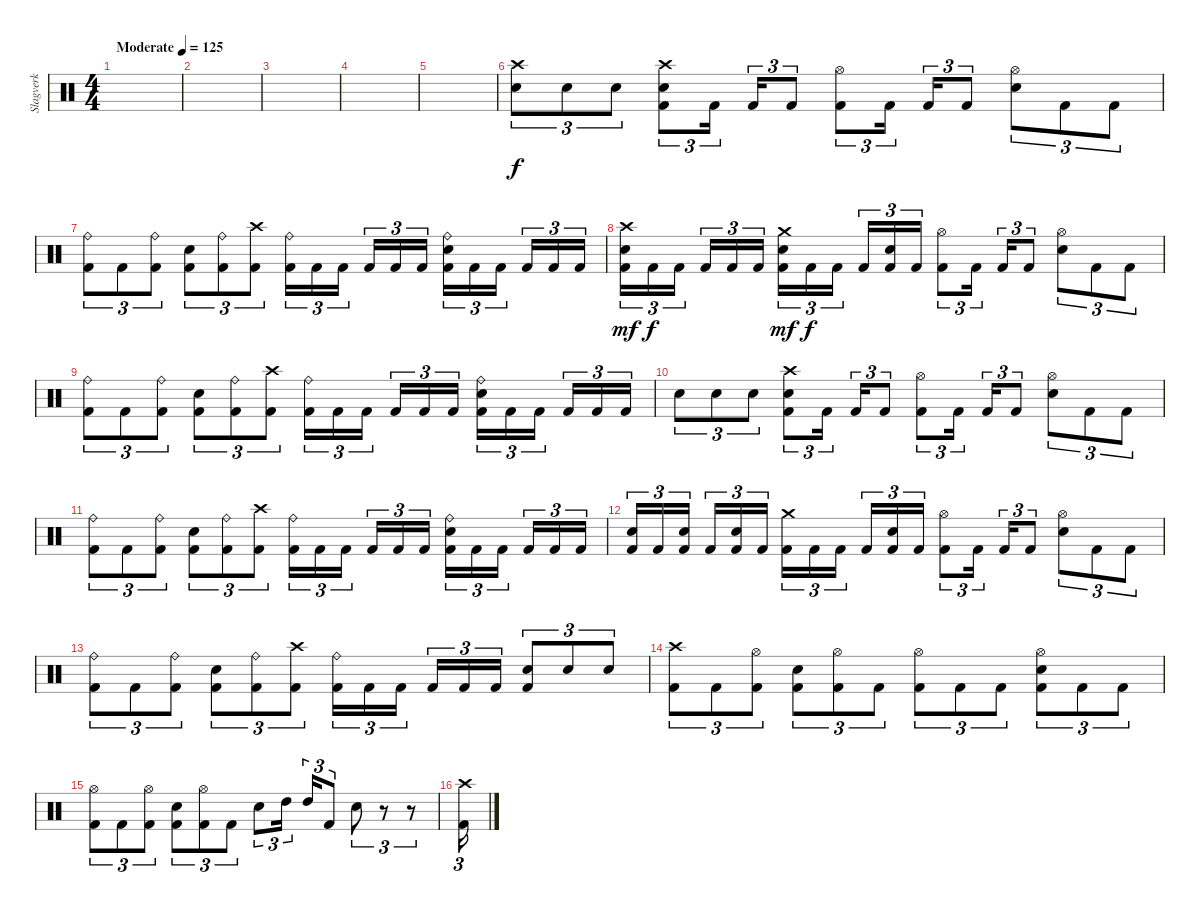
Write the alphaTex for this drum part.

\track ("Slagverk" "Slagverk") {instrument percussion}
\staff {score}
\articulation defaults
\ts (4 4)
\tempo (125 "Moderate")
\clef neutral
\ks c
|
|
|
|
|
("Crash high (hit)" "Electric Snare (hit)").8{tu (3 2)} "Electric Snare (hit)".8{tu (3 2) dy f} "Electric Snare (hit)".8{tu (3 2)} ("Crash high (hit)" "Electric Snare (hit)" "Kick (hit) 2").8{tu (3 2)} "Kick (hit) 2".16{tu (3 2) beam splitsecondary} "Kick (hit) 2".16{tu (3 2)} "Kick (hit) 2".8{tu (3 2)} ("Hi-Hat (open)" "Kick (hit) 2").8{tu (3 2)} "Kick (hit) 2".16{tu (3 2) beam splitsecondary} "Kick (hit) 2".16{tu (3 2)} "Kick (hit) 2".8{tu (3 2)} ("Hi-Hat (open)" "Electric Snare (hit)").8{tu (3 2)} "Kick (hit) 2".8{tu (3 2)} "Kick (hit) 2".8{tu (3 2)} |
("Ride (bell)" "Kick (hit) 2").8{tu (3 2)} "Kick (hit) 2".8{tu (3 2)} ("Ride (bell)" "Kick (hit) 2").8{tu (3 2)} ("Electric Snare (hit)" "Kick (hit) 2").8{tu (3 2)} ("Ride (bell)" "Kick (hit) 2").8{tu (3 2)} ("Crash high (hit)" "Kick (hit) 2").8{tu (3 2)} ("Ride (bell)" "Kick (hit) 2").16{tu (3 2)} "Kick (hit) 2".16{tu (3 2)} "Kick (hit) 2".16{tu (3 2) beam splitsecondary} "Kick (hit) 2".16{tu (3 2)} "Kick (hit) 2".16{tu (3 2)} "Kick (hit) 2".16{tu (3 2)} ("Ride (bell)" "Electric Snare (hit)" "Kick (hit) 2").16{tu (3 2)} "Kick (hit) 2".16{tu (3 2)} "Kick (hit) 2".16{tu (3 2) beam splitsecondary} "Kick (hit) 2".16{tu (3 2)} "Kick (hit) 2".16{tu (3 2)} "Kick (hit) 2".16{tu (3 2)} |
("Crash high (hit)" "Electric Snare (hit)" "Kick (hit) 2").16{tu (3 2) dy mf} "Kick (hit) 2".16{tu (3 2) dy f} "Kick (hit) 2".16{tu (3 2) beam splitsecondary} "Kick (hit) 2".16{tu (3 2)} "Kick (hit) 2".16{tu (3 2)} "Kick (hit) 2".16{tu (3 2)} ("Crash medium (hit)" "Electric Snare (hit)" "Kick (hit) 2").16{tu (3 2) dy mf} "Kick (hit) 2".16{tu (3 2) dy f} "Kick (hit) 2".16{tu (3 2) beam splitsecondary} "Kick (hit) 2".16{tu (3 2)} ("Electric Snare (hit)" "Kick (hit) 2").16{tu (3 2)} "Kick (hit) 2".16{tu (3 2)} ("Hi-Hat (open)" "Kick (hit) 2").8{tu (3 2)} "Kick (hit) 2".16{tu (3 2) beam splitsecondary} "Kick (hit) 2".16{tu (3 2)} "Kick (hit) 2".8{tu (3 2)} ("Hi-Hat (open)" "Electric Snare (hit)").8{tu (3 2)} "Kick (hit) 2".8{tu (3 2)} "Kick (hit) 2".8{tu (3 2)} |
("Ride (bell)" "Kick (hit) 2").8{tu (3 2)} "Kick (hit) 2".8{tu (3 2)} ("Ride (bell)" "Kick (hit) 2").8{tu (3 2)} ("Electric Snare (hit)" "Kick (hit) 2").8{tu (3 2)} ("Ride (bell)" "Kick (hit) 2").8{tu (3 2)} ("Crash high (hit)" "Kick (hit) 2").8{tu (3 2)} ("Ride (bell)" "Kick (hit) 2").16{tu (3 2)} "Kick (hit) 2".16{tu (3 2)} "Kick (hit) 2".16{tu (3 2) beam splitsecondary} "Kick (hit) 2".16{tu (3 2)} "Kick (hit) 2".16{tu (3 2)} "Kick (hit) 2".16{tu (3 2)} ("Ride (bell)" "Electric Snare (hit)" "Kick (hit) 2").16{tu (3 2)} "Kick (hit) 2".16{tu (3 2)} "Kick (hit) 2".16{tu (3 2) beam splitsecondary} "Kick (hit) 2".16{tu (3 2)} "Kick (hit) 2".16{tu (3 2)} "Kick (hit) 2".16{tu (3 2)} |
"Electric Snare (hit)".8{tu (3 2)} "Electric Snare (hit)".8{tu (3 2)} "Electric Snare (hit)".8{tu (3 2)} ("Crash high (hit)" "Electric Snare (hit)" "Kick (hit) 2").8{tu (3 2)} "Kick (hit) 2".16{tu (3 2) beam splitsecondary} "Kick (hit) 2".16{tu (3 2)} "Kick (hit) 2".8{tu (3 2)} ("Hi-Hat (open)" "Kick (hit) 2").8{tu (3 2)} "Kick (hit) 2".16{tu (3 2) beam splitsecondary} "Kick (hit) 2".16{tu (3 2)} "Kick (hit) 2".8{tu (3 2)} ("Hi-Hat (open)" "Electric Snare (hit)").8{tu (3 2)} "Kick (hit) 2".8{tu (3 2)} "Kick (hit) 2".8{tu (3 2)} |
("Ride (bell)" "Kick (hit) 2").8{tu (3 2)} "Kick (hit) 2".8{tu (3 2)} ("Ride (bell)" "Kick (hit) 2").8{tu (3 2)} ("Electric Snare (hit)" "Kick (hit) 2").8{tu (3 2)} ("Ride (bell)" "Kick (hit) 2").8{tu (3 2)} ("Crash high (hit)" "Kick (hit) 2").8{tu (3 2)} ("Ride (bell)" "Kick (hit) 2").16{tu (3 2)} "Kick (hit) 2".16{tu (3 2)} "Kick (hit) 2".16{tu (3 2) beam splitsecondary} "Kick (hit) 2".16{tu (3 2)} "Kick (hit) 2".16{tu (3 2)} "Kick (hit) 2".16{tu (3 2)} ("Ride (bell)" "Electric Snare (hit)" "Kick (hit) 2").16{tu (3 2)} "Kick (hit) 2".16{tu (3 2)} "Kick (hit) 2".16{tu (3 2) beam splitsecondary} "Kick (hit) 2".16{tu (3 2)} "Kick (hit) 2".16{tu (3 2)} "Kick (hit) 2".16{tu (3 2)} |
("Electric Snare (hit)" "Kick (hit) 2").16{tu (3 2)} "Kick (hit) 2".16{tu (3 2)} ("Electric Snare (hit)" "Kick (hit) 2").16{tu (3 2) beam splitsecondary} "Kick (hit) 2".16{tu (3 2)} ("Electric Snare (hit)" "Kick (hit) 2").16{tu (3 2)} "Kick (hit) 2".16{tu (3 2)} ("Crash medium (hit)" "Kick (hit) 2").16{tu (3 2)} "Kick (hit) 2".16{tu (3 2)} "Kick (hit) 2".16{tu (3 2) beam splitsecondary} "Kick (hit) 2".16{tu (3 2)} ("Electric Snare (hit)" "Kick (hit) 2").16{tu (3 2)} "Kick (hit) 2".16{tu (3 2)} ("Hi-Hat (open)" "Kick (hit) 2").8{tu (3 2)} "Kick (hit) 2".16{tu (3 2) beam splitsecondary} "Kick (hit) 2".16{tu (3 2)} "Kick (hit) 2".8{tu (3 2)} ("Hi-Hat (open)" "Electric Snare (hit)").8{tu (3 2)} "Kick (hit) 2".8{tu (3 2)} "Kick (hit) 2".8{tu (3 2)} |
("Ride (bell)" "Kick (hit) 2").8{tu (3 2)} "Kick (hit) 2".8{tu (3 2)} ("Ride (bell)" "Kick (hit) 2").8{tu (3 2)} ("Electric Snare (hit)" "Kick (hit) 2").8{tu (3 2)} ("Ride (bell)" "Kick (hit) 2").8{tu (3 2)} ("Crash high (hit)" "Kick (hit) 2").8{tu (3 2)} ("Ride (bell)" "Kick (hit) 2").16{tu (3 2)} "Kick (hit) 2".16{tu (3 2)} "Kick (hit) 2".16{tu (3 2) beam splitsecondary} "Kick (hit) 2".16{tu (3 2)} "Kick (hit) 2".16{tu (3 2)} "Kick (hit) 2".16{tu (3 2)} ("Electric Snare (hit)" "Kick (hit) 2").8{tu (3 2)} "Electric Snare (hit)".8{tu (3 2)} "Electric Snare (hit)".8{tu (3 2)} |
("Crash high (hit)" "Kick (hit) 2").8{tu (3 2)} "Kick (hit) 2".8{tu (3 2)} ("Hi-Hat (open)" "Kick (hit) 2").8{tu (3 2)} ("Electric Snare (hit)" "Kick (hit) 2").8{tu (3 2)} ("Hi-Hat (open)" "Kick (hit) 2").8{tu (3 2)} "Kick (hit) 2".8{tu (3 2)} ("Hi-Hat (open)" "Kick (hit) 2").8{tu (3 2)} "Kick (hit) 2".8{tu (3 2)} "Kick (hit) 2".8{tu (3 2)} ("Hi-Hat (open)" "Electric Snare (hit)" "Kick (hit) 2").8{tu (3 2)} "Kick (hit) 2".8{tu (3 2)} "Kick (hit) 2".8{tu (3 2)} |
("Hi-Hat (open)" "Kick (hit) 2").8{tu (3 2)} "Kick (hit) 2".8{tu (3 2)} ("Hi-Hat (open)" "Kick (hit) 2").8{tu (3 2)} ("Electric Snare (hit)" "Kick (hit) 2").8{tu (3 2)} ("Hi-Hat (open)" "Kick (hit) 2").8{tu (3 2)} "Kick (hit) 2".8{tu (3 2)} "Electric Snare (hit)".8{tu (3 2)} "High Tom (hit)".16{tu (3 2) beam splitsecondary} "High Tom (hit)".16{tu (3 2)} "Kick (hit) 2".8{tu (3 2)} "Electric Snare (hit)".8{tu (3 2)} r.8{tu (3 2)} r.8{tu (3 2)} |
("Crash high (hit)" "Kick (hit) 2").16{tu (3 2)}
